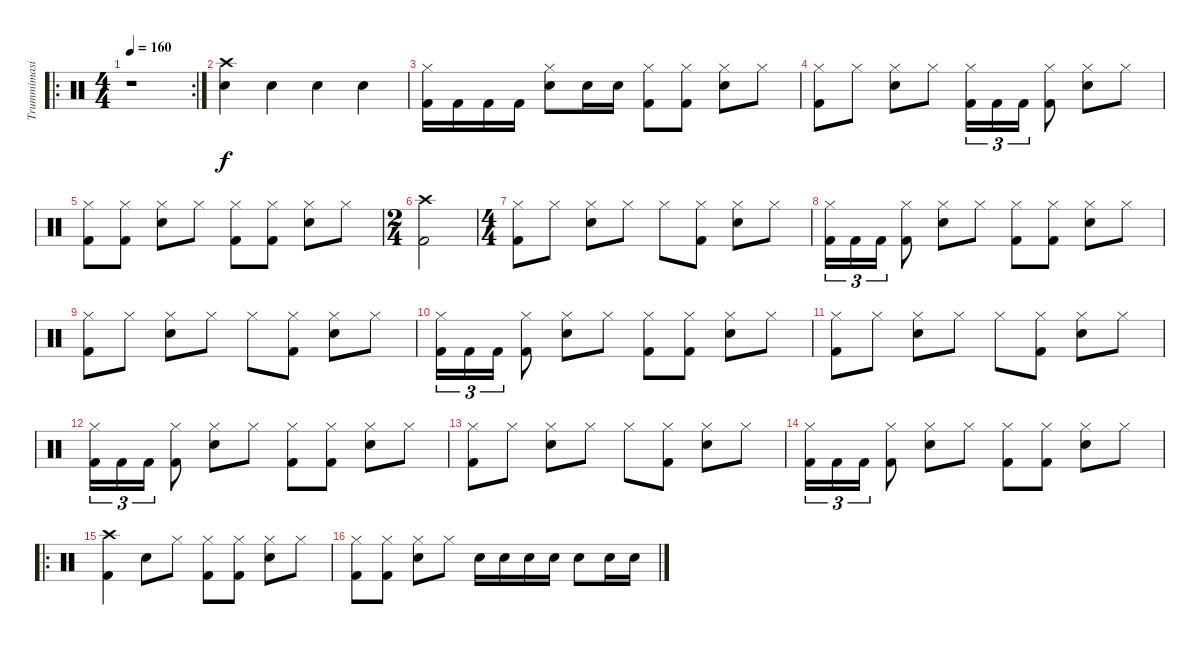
\track ("Trummimasin" "Trummimasi") {instrument percussion}
\staff {score}
\articulation defaults
\ro
\rc 2
\ts (4 4)
\tempo 160
\clef neutral
\ks c
r.1{dy f} |
("Crash high (hit)" "Snare (hit) 2").4 "Snare (hit) 2".4 "Snare (hit) 2".4 "Snare (hit) 2".4 |
("Hi-Hat (closed)" "Kick (hit) 2").16 "Kick (hit) 2".16 "Kick (hit) 2".16 "Kick (hit) 2".16 ("Hi-Hat (closed)" "Snare (hit) 2").8 "Snare (hit) 2".16 "Snare (hit) 2".16 ("Hi-Hat (closed)" "Kick (hit) 2").8 ("Hi-Hat (closed)" "Kick (hit) 2").8 ("Hi-Hat (closed)" "Snare (hit) 2").8 "Hi-Hat (closed)".8 |
("Hi-Hat (closed)" "Kick (hit) 2").8 "Hi-Hat (closed)".8 ("Hi-Hat (closed)" "Snare (hit) 2").8 "Hi-Hat (closed)".8 ("Hi-Hat (closed)" "Kick (hit) 2").16{tu (3 2)} "Kick (hit) 2".16{tu (3 2)} "Kick (hit) 2".16{tu (3 2)} ("Hi-Hat (closed)" "Kick (hit) 2").8 ("Hi-Hat (closed)" "Snare (hit) 2").8 "Hi-Hat (closed)".8 |
("Hi-Hat (closed)" "Kick (hit) 2").8 ("Hi-Hat (closed)" "Kick (hit) 2").8 ("Hi-Hat (closed)" "Snare (hit) 2").8 "Hi-Hat (closed)".8 ("Hi-Hat (closed)" "Kick (hit) 2").8 ("Hi-Hat (closed)" "Kick (hit) 2").8 ("Hi-Hat (closed)" "Snare (hit) 2").8 "Hi-Hat (closed)".8 |
\ts (2 4)
("Crash high (hit)" "Kick (hit) 2").2 |
\ts (4 4)
("Hi-Hat (closed)" "Kick (hit) 2").8 "Hi-Hat (closed)".8 ("Hi-Hat (closed)" "Snare (hit) 2").8 "Hi-Hat (closed)".8 "Hi-Hat (closed)".8 ("Hi-Hat (closed)" "Kick (hit) 2").8 ("Hi-Hat (closed)" "Snare (hit) 2").8 "Hi-Hat (closed)".8 |
("Hi-Hat (closed)" "Kick (hit) 2").16{tu (3 2)} "Kick (hit) 2".16{tu (3 2)} "Kick (hit) 2".16{tu (3 2)} ("Hi-Hat (closed)" "Kick (hit) 2").8 ("Hi-Hat (closed)" "Snare (hit) 2").8 "Hi-Hat (closed)".8 ("Hi-Hat (closed)" "Kick (hit) 2").8 ("Hi-Hat (closed)" "Kick (hit) 2").8 ("Hi-Hat (closed)" "Snare (hit) 2").8 "Hi-Hat (closed)".8 |
("Hi-Hat (closed)" "Kick (hit) 2").8 "Hi-Hat (closed)".8 ("Hi-Hat (closed)" "Snare (hit) 2").8 "Hi-Hat (closed)".8 "Hi-Hat (closed)".8 ("Hi-Hat (closed)" "Kick (hit) 2").8 ("Hi-Hat (closed)" "Snare (hit) 2").8 "Hi-Hat (closed)".8 |
("Hi-Hat (closed)" "Kick (hit) 2").16{tu (3 2)} "Kick (hit) 2".16{tu (3 2)} "Kick (hit) 2".16{tu (3 2)} ("Hi-Hat (closed)" "Kick (hit) 2").8 ("Hi-Hat (closed)" "Snare (hit) 2").8 "Hi-Hat (closed)".8 ("Hi-Hat (closed)" "Kick (hit) 2").8 ("Hi-Hat (closed)" "Kick (hit) 2").8 ("Hi-Hat (closed)" "Snare (hit) 2").8 "Hi-Hat (closed)".8 |
("Hi-Hat (closed)" "Kick (hit) 2").8 "Hi-Hat (closed)".8 ("Hi-Hat (closed)" "Snare (hit) 2").8 "Hi-Hat (closed)".8 "Hi-Hat (closed)".8 ("Hi-Hat (closed)" "Kick (hit) 2").8 ("Hi-Hat (closed)" "Snare (hit) 2").8 "Hi-Hat (closed)".8 |
("Hi-Hat (closed)" "Kick (hit) 2").16{tu (3 2)} "Kick (hit) 2".16{tu (3 2)} "Kick (hit) 2".16{tu (3 2)} ("Hi-Hat (closed)" "Kick (hit) 2").8 ("Hi-Hat (closed)" "Snare (hit) 2").8 "Hi-Hat (closed)".8 ("Hi-Hat (closed)" "Kick (hit) 2").8 ("Hi-Hat (closed)" "Kick (hit) 2").8 ("Hi-Hat (closed)" "Snare (hit) 2").8 "Hi-Hat (closed)".8 |
("Hi-Hat (closed)" "Kick (hit) 2").8 "Hi-Hat (closed)".8 ("Hi-Hat (closed)" "Snare (hit) 2").8 "Hi-Hat (closed)".8 "Hi-Hat (closed)".8 ("Hi-Hat (closed)" "Kick (hit) 2").8 ("Hi-Hat (closed)" "Snare (hit) 2").8 "Hi-Hat (closed)".8 |
("Hi-Hat (closed)" "Kick (hit) 2").16{tu (3 2)} "Kick (hit) 2".16{tu (3 2)} "Kick (hit) 2".16{tu (3 2)} ("Hi-Hat (closed)" "Kick (hit) 2").8 ("Hi-Hat (closed)" "Snare (hit) 2").8 "Hi-Hat (closed)".8 ("Hi-Hat (closed)" "Kick (hit) 2").8 ("Hi-Hat (closed)" "Kick (hit) 2").8 ("Hi-Hat (closed)" "Snare (hit) 2").8 "Hi-Hat (closed)".8 |
\ro
("Crash high (hit)" "Kick (hit) 2").4 "Snare (hit) 2".8 "Hi-Hat (closed)".8 ("Hi-Hat (closed)" "Kick (hit) 2").8 ("Hi-Hat (closed)" "Kick (hit) 2").8 ("Hi-Hat (closed)" "Snare (hit) 2").8 "Hi-Hat (closed)".8 |
("Hi-Hat (closed)" "Kick (hit) 2").8 ("Hi-Hat (closed)" "Kick (hit) 2").8 ("Hi-Hat (closed)" "Snare (hit) 2").8 "Hi-Hat (closed)".8 "Snare (hit) 2".16 "Snare (hit) 2".16 "Snare (hit) 2".16 "Snare (hit) 2".16 "Snare (hit) 2".8 "Snare (hit) 2".16 "Snare (hit) 2".16
